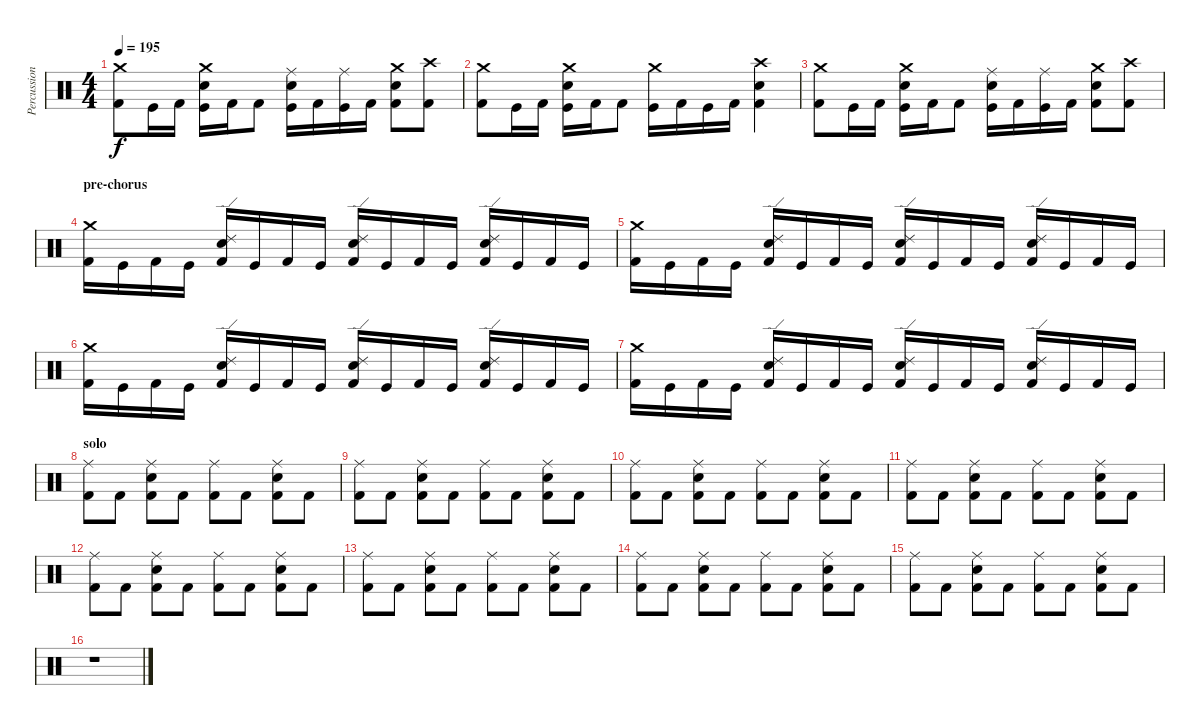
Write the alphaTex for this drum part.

\track ("Percussion" "Percussion") {instrument percussion}
\staff {score}
\articulation defaults
\ts (4 4)
\tempo 195
\clef neutral
\ks c
("Crash medium (hit)" "Kick (hit) 2").8{dy f} "Kick (hit)".16 "Kick (hit) 2".16 ("Crash medium (hit)" "Electric Snare (hit)" "Kick (hit)").16 "Kick (hit) 2".16 "Kick (hit) 2".8 ("Ride (middle)" "Electric Snare (hit)" "Kick (hit)").16 "Kick (hit) 2".16 ("Ride (middle)" "Kick (hit)").16 "Kick (hit) 2".16 ("Crash medium (hit)" "Electric Snare (hit)" "Kick (hit) 2").8 ("Crash high (hit)" "Kick (hit) 2").8 |
("Crash medium (hit)" "Kick (hit) 2").8 "Kick (hit)".16 "Kick (hit) 2".16 ("Crash medium (hit)" "Electric Snare (hit)" "Kick (hit)").16 "Kick (hit) 2".16 "Kick (hit) 2".8 ("Crash medium (hit)" "Kick (hit)").16 "Kick (hit) 2".16 "Kick (hit)".16 "Kick (hit) 2".16 ("Crash high (hit)" "Electric Snare (hit)" "Kick (hit) 2").4 |
("Crash medium (hit)" "Kick (hit) 2").8 "Kick (hit)".16 "Kick (hit) 2".16 ("Crash medium (hit)" "Electric Snare (hit)" "Kick (hit)").16 "Kick (hit) 2".16 "Kick (hit) 2".8 ("Ride (middle)" "Electric Snare (hit)" "Kick (hit)").16 "Kick (hit) 2".16 ("Ride (middle)" "Kick (hit)").16 "Kick (hit) 2".16 ("Crash medium (hit)" "Electric Snare (hit)" "Kick (hit) 2").8 ("Crash high (hit)" "Kick (hit) 2").8 |
\section ("" "pre-chorus")
("Crash medium (hit)" "Kick (hit) 2").16 "Kick (hit)".16 "Kick (hit) 2".16 "Kick (hit)".16 ("Ride (edge) 2" "Electric Snare (hit)" "Kick (hit) 2").16 "Kick (hit)".16 "Kick (hit) 2".16 "Kick (hit)".16 ("Ride (edge) 2" "Electric Snare (hit)" "Kick (hit) 2").16 "Kick (hit)".16 "Kick (hit) 2".16 "Kick (hit)".16 ("Ride (edge) 2" "Electric Snare (hit)" "Kick (hit) 2").16 "Kick (hit)".16 "Kick (hit) 2".16 "Kick (hit)".16 |
("Crash medium (hit)" "Kick (hit) 2").16 "Kick (hit)".16 "Kick (hit) 2".16 "Kick (hit)".16 ("Ride (edge) 2" "Electric Snare (hit)" "Kick (hit) 2").16 "Kick (hit)".16 "Kick (hit) 2".16 "Kick (hit)".16 ("Ride (edge) 2" "Electric Snare (hit)" "Kick (hit) 2").16 "Kick (hit)".16 "Kick (hit) 2".16 "Kick (hit)".16 ("Ride (edge) 2" "Electric Snare (hit)" "Kick (hit) 2").16 "Kick (hit)".16 "Kick (hit) 2".16 "Kick (hit)".16 |
("Crash medium (hit)" "Kick (hit) 2").16 "Kick (hit)".16 "Kick (hit) 2".16 "Kick (hit)".16 ("Ride (edge) 2" "Electric Snare (hit)" "Kick (hit) 2").16 "Kick (hit)".16 "Kick (hit) 2".16 "Kick (hit)".16 ("Ride (edge) 2" "Electric Snare (hit)" "Kick (hit) 2").16 "Kick (hit)".16 "Kick (hit) 2".16 "Kick (hit)".16 ("Ride (edge) 2" "Electric Snare (hit)" "Kick (hit) 2").16 "Kick (hit)".16 "Kick (hit) 2".16 "Kick (hit)".16 |
("Crash medium (hit)" "Kick (hit) 2").16 "Kick (hit)".16 "Kick (hit) 2".16 "Kick (hit)".16 ("Ride (edge) 2" "Electric Snare (hit)" "Kick (hit) 2").16 "Kick (hit)".16 "Kick (hit) 2".16 "Kick (hit)".16 ("Ride (edge) 2" "Electric Snare (hit)" "Kick (hit) 2").16 "Kick (hit)".16 "Kick (hit) 2".16 "Kick (hit)".16 ("Ride (edge) 2" "Electric Snare (hit)" "Kick (hit) 2").16 "Kick (hit)".16 "Kick (hit) 2".16 "Kick (hit)".16 |
\section ("" "solo")
("Ride (middle)" "Kick (hit) 2").8 "Kick (hit) 2".8 ("Ride (middle)" "Electric Snare (hit)" "Kick (hit) 2").8 "Kick (hit) 2".8 ("Ride (middle)" "Kick (hit) 2").8 "Kick (hit) 2".8 ("Ride (middle)" "Electric Snare (hit)" "Kick (hit) 2").8 "Kick (hit) 2".8 |
("Ride (middle)" "Kick (hit) 2").8 "Kick (hit) 2".8 ("Ride (middle)" "Electric Snare (hit)" "Kick (hit) 2").8 "Kick (hit) 2".8 ("Ride (middle)" "Kick (hit) 2").8 "Kick (hit) 2".8 ("Ride (middle)" "Electric Snare (hit)" "Kick (hit) 2").8 "Kick (hit) 2".8 |
("Ride (middle)" "Kick (hit) 2").8 "Kick (hit) 2".8 ("Ride (middle)" "Electric Snare (hit)" "Kick (hit) 2").8 "Kick (hit) 2".8 ("Ride (middle)" "Kick (hit) 2").8 "Kick (hit) 2".8 ("Ride (middle)" "Electric Snare (hit)" "Kick (hit) 2").8 "Kick (hit) 2".8 |
("Ride (middle)" "Kick (hit) 2").8 "Kick (hit) 2".8 ("Ride (middle)" "Electric Snare (hit)" "Kick (hit) 2").8 "Kick (hit) 2".8 ("Ride (middle)" "Kick (hit) 2").8 "Kick (hit) 2".8 ("Ride (middle)" "Electric Snare (hit)" "Kick (hit) 2").8 "Kick (hit) 2".8 |
("Ride (middle)" "Kick (hit) 2").8 "Kick (hit) 2".8 ("Ride (middle)" "Electric Snare (hit)" "Kick (hit) 2").8 "Kick (hit) 2".8 ("Ride (middle)" "Kick (hit) 2").8 "Kick (hit) 2".8 ("Ride (middle)" "Electric Snare (hit)" "Kick (hit) 2").8 "Kick (hit) 2".8 |
("Ride (middle)" "Kick (hit) 2").8 "Kick (hit) 2".8 ("Ride (middle)" "Electric Snare (hit)" "Kick (hit) 2").8 "Kick (hit) 2".8 ("Ride (middle)" "Kick (hit) 2").8 "Kick (hit) 2".8 ("Ride (middle)" "Electric Snare (hit)" "Kick (hit) 2").8 "Kick (hit) 2".8 |
("Ride (middle)" "Kick (hit) 2").8 "Kick (hit) 2".8 ("Ride (middle)" "Electric Snare (hit)" "Kick (hit) 2").8 "Kick (hit) 2".8 ("Ride (middle)" "Kick (hit) 2").8 "Kick (hit) 2".8 ("Ride (middle)" "Electric Snare (hit)" "Kick (hit) 2").8 "Kick (hit) 2".8 |
("Ride (middle)" "Kick (hit) 2").8 "Kick (hit) 2".8 ("Ride (middle)" "Electric Snare (hit)" "Kick (hit) 2").8 "Kick (hit) 2".8 ("Ride (middle)" "Kick (hit) 2").8 "Kick (hit) 2".8 ("Ride (middle)" "Electric Snare (hit)" "Kick (hit) 2").8 "Kick (hit) 2".8 |
r.1
